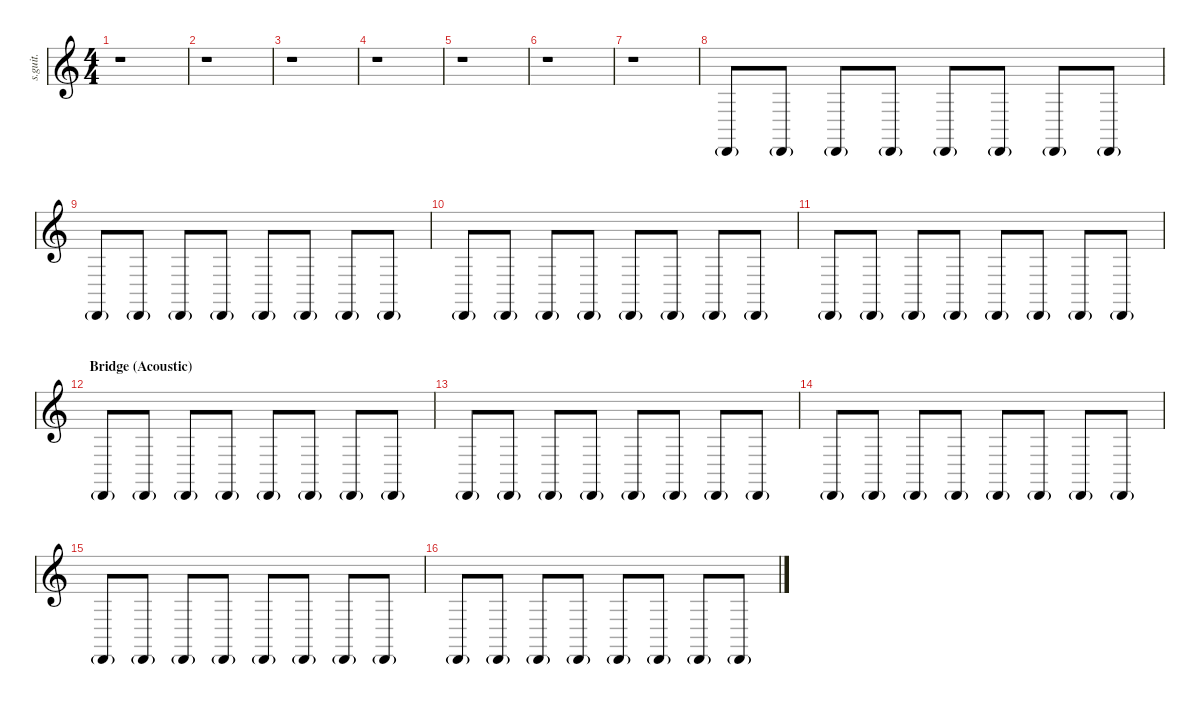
\defaultSystemsLayout 4
\hideDynamics
\bracketExtendMode nobrackets
\track ("Shaker" "s.guit.") {instrument percussion}
\staff {score}
\articulation defaults
\ts (4 4)
\tempo (124 hide)
\clef g2
\ks c
r.1{dy p} |
r.1 |
r.1 |
r.1 |
r.1 |
r.1 |
r.1 |
"Cabasa (hit)"{g}.8{lyrics (0 "") lyrics (1 "") lyrics (2 "") lyrics (3 "") lyrics (4 "")} "Cabasa (hit)"{g}.8{lyrics (0 "") lyrics (1 "") lyrics (2 "") lyrics (3 "") lyrics (4 "") dy pp} "Cabasa (hit)"{g}.8{lyrics (0 "") lyrics (1 "") lyrics (2 "") lyrics (3 "") lyrics (4 "") dy p} "Cabasa (hit)"{g}.8{lyrics (0 "") lyrics (1 "") lyrics (2 "") lyrics (3 "") lyrics (4 "") dy pp} "Cabasa (hit)"{g}.8{lyrics (0 "") lyrics (1 "") lyrics (2 "") lyrics (3 "") lyrics (4 "") dy p} "Cabasa (hit)"{g}.8{lyrics (0 "") lyrics (1 "") lyrics (2 "") lyrics (3 "") lyrics (4 "") dy pp} "Cabasa (hit)"{g}.8{lyrics (0 "") lyrics (1 "") lyrics (2 "") lyrics (3 "") lyrics (4 "") dy p} "Cabasa (hit)"{g}.8{lyrics (0 "") lyrics (1 "") lyrics (2 "") lyrics (3 "") lyrics (4 "") dy pp} |
"Cabasa (hit)"{g}.8{lyrics (0 "") lyrics (1 "") lyrics (2 "") lyrics (3 "") lyrics (4 "") dy p} "Cabasa (hit)"{g}.8{lyrics (0 "") lyrics (1 "") lyrics (2 "") lyrics (3 "") lyrics (4 "") dy pp} "Cabasa (hit)"{g}.8{lyrics (0 "") lyrics (1 "") lyrics (2 "") lyrics (3 "") lyrics (4 "") dy p} "Cabasa (hit)"{g}.8{lyrics (0 "") lyrics (1 "") lyrics (2 "") lyrics (3 "") lyrics (4 "") dy pp} "Cabasa (hit)"{g}.8{lyrics (0 "") lyrics (1 "") lyrics (2 "") lyrics (3 "") lyrics (4 "") dy p} "Cabasa (hit)"{g}.8{lyrics (0 "") lyrics (1 "") lyrics (2 "") lyrics (3 "") lyrics (4 "") dy pp} "Cabasa (hit)"{g}.8{lyrics (0 "") lyrics (1 "") lyrics (2 "") lyrics (3 "") lyrics (4 "") dy p} "Cabasa (hit)"{g}.8{lyrics (0 "") lyrics (1 "") lyrics (2 "") lyrics (3 "") lyrics (4 "") dy pp} |
"Cabasa (hit)"{g}.8{lyrics (0 "") lyrics (1 "") lyrics (2 "") lyrics (3 "") lyrics (4 "") dy p} "Cabasa (hit)"{g}.8{lyrics (0 "") lyrics (1 "") lyrics (2 "") lyrics (3 "") lyrics (4 "") dy pp} "Cabasa (hit)"{g}.8{lyrics (0 "") lyrics (1 "") lyrics (2 "") lyrics (3 "") lyrics (4 "") dy p} "Cabasa (hit)"{g}.8{lyrics (0 "") lyrics (1 "") lyrics (2 "") lyrics (3 "") lyrics (4 "") dy pp} "Cabasa (hit)"{g}.8{lyrics (0 "") lyrics (1 "") lyrics (2 "") lyrics (3 "") lyrics (4 "") dy p} "Cabasa (hit)"{g}.8{lyrics (0 "") lyrics (1 "") lyrics (2 "") lyrics (3 "") lyrics (4 "") dy pp} "Cabasa (hit)"{g}.8{lyrics (0 "") lyrics (1 "") lyrics (2 "") lyrics (3 "") lyrics (4 "") dy p} "Cabasa (hit)"{g}.8{lyrics (0 "") lyrics (1 "") lyrics (2 "") lyrics (3 "") lyrics (4 "") dy pp} |
"Cabasa (hit)"{g}.8{lyrics (0 "") lyrics (1 "") lyrics (2 "") lyrics (3 "") lyrics (4 "") dy p} "Cabasa (hit)"{g}.8{lyrics (0 "") lyrics (1 "") lyrics (2 "") lyrics (3 "") lyrics (4 "") dy pp} "Cabasa (hit)"{g}.8{lyrics (0 "") lyrics (1 "") lyrics (2 "") lyrics (3 "") lyrics (4 "") dy p} "Cabasa (hit)"{g}.8{lyrics (0 "") lyrics (1 "") lyrics (2 "") lyrics (3 "") lyrics (4 "") dy pp} "Cabasa (hit)"{g}.8{lyrics (0 "") lyrics (1 "") lyrics (2 "") lyrics (3 "") lyrics (4 "") dy p} "Cabasa (hit)"{g}.8{lyrics (0 "") lyrics (1 "") lyrics (2 "") lyrics (3 "") lyrics (4 "") dy pp} "Cabasa (hit)"{g}.8{lyrics (0 "") lyrics (1 "") lyrics (2 "") lyrics (3 "") lyrics (4 "") dy p} "Cabasa (hit)"{g}.8{lyrics (0 "") lyrics (1 "") lyrics (2 "") lyrics (3 "") lyrics (4 "") dy pp} |
\section ("" "Bridge (Acoustic)")
"Cabasa (hit)"{g}.8{lyrics (0 "") lyrics (1 "") lyrics (2 "") lyrics (3 "") lyrics (4 "") dy p} "Cabasa (hit)"{g}.8{lyrics (0 "") lyrics (1 "") lyrics (2 "") lyrics (3 "") lyrics (4 "") dy pp} "Cabasa (hit)"{g}.8{lyrics (0 "") lyrics (1 "") lyrics (2 "") lyrics (3 "") lyrics (4 "") dy p} "Cabasa (hit)"{g}.8{lyrics (0 "") lyrics (1 "") lyrics (2 "") lyrics (3 "") lyrics (4 "") dy pp} "Cabasa (hit)"{g}.8{lyrics (0 "") lyrics (1 "") lyrics (2 "") lyrics (3 "") lyrics (4 "") dy p} "Cabasa (hit)"{g}.8{lyrics (0 "") lyrics (1 "") lyrics (2 "") lyrics (3 "") lyrics (4 "") dy pp} "Cabasa (hit)"{g}.8{lyrics (0 "") lyrics (1 "") lyrics (2 "") lyrics (3 "") lyrics (4 "") dy p} "Cabasa (hit)"{g}.8{lyrics (0 "") lyrics (1 "") lyrics (2 "") lyrics (3 "") lyrics (4 "") dy pp} |
"Cabasa (hit)"{g}.8{lyrics (0 "") lyrics (1 "") lyrics (2 "") lyrics (3 "") lyrics (4 "") dy p} "Cabasa (hit)"{g}.8{lyrics (0 "") lyrics (1 "") lyrics (2 "") lyrics (3 "") lyrics (4 "") dy pp} "Cabasa (hit)"{g}.8{lyrics (0 "") lyrics (1 "") lyrics (2 "") lyrics (3 "") lyrics (4 "") dy p} "Cabasa (hit)"{g}.8{lyrics (0 "") lyrics (1 "") lyrics (2 "") lyrics (3 "") lyrics (4 "") dy pp} "Cabasa (hit)"{g}.8{lyrics (0 "") lyrics (1 "") lyrics (2 "") lyrics (3 "") lyrics (4 "") dy p} "Cabasa (hit)"{g}.8{lyrics (0 "") lyrics (1 "") lyrics (2 "") lyrics (3 "") lyrics (4 "") dy pp} "Cabasa (hit)"{g}.8{lyrics (0 "") lyrics (1 "") lyrics (2 "") lyrics (3 "") lyrics (4 "") dy p} "Cabasa (hit)"{g}.8{lyrics (0 "") lyrics (1 "") lyrics (2 "") lyrics (3 "") lyrics (4 "") dy pp} |
"Cabasa (hit)"{g}.8{lyrics (0 "") lyrics (1 "") lyrics (2 "") lyrics (3 "") lyrics (4 "") dy p} "Cabasa (hit)"{g}.8{lyrics (0 "") lyrics (1 "") lyrics (2 "") lyrics (3 "") lyrics (4 "") dy pp} "Cabasa (hit)"{g}.8{lyrics (0 "") lyrics (1 "") lyrics (2 "") lyrics (3 "") lyrics (4 "") dy p} "Cabasa (hit)"{g}.8{lyrics (0 "") lyrics (1 "") lyrics (2 "") lyrics (3 "") lyrics (4 "") dy pp} "Cabasa (hit)"{g}.8{lyrics (0 "") lyrics (1 "") lyrics (2 "") lyrics (3 "") lyrics (4 "") dy p} "Cabasa (hit)"{g}.8{lyrics (0 "") lyrics (1 "") lyrics (2 "") lyrics (3 "") lyrics (4 "") dy pp} "Cabasa (hit)"{g}.8{lyrics (0 "") lyrics (1 "") lyrics (2 "") lyrics (3 "") lyrics (4 "") dy p} "Cabasa (hit)"{g}.8{lyrics (0 "") lyrics (1 "") lyrics (2 "") lyrics (3 "") lyrics (4 "") dy pp} |
"Cabasa (hit)"{g}.8{lyrics (0 "") lyrics (1 "") lyrics (2 "") lyrics (3 "") lyrics (4 "") dy p} "Cabasa (hit)"{g}.8{lyrics (0 "") lyrics (1 "") lyrics (2 "") lyrics (3 "") lyrics (4 "") dy pp} "Cabasa (hit)"{g}.8{lyrics (0 "") lyrics (1 "") lyrics (2 "") lyrics (3 "") lyrics (4 "") dy p} "Cabasa (hit)"{g}.8{lyrics (0 "") lyrics (1 "") lyrics (2 "") lyrics (3 "") lyrics (4 "") dy pp} "Cabasa (hit)"{g}.8{lyrics (0 "") lyrics (1 "") lyrics (2 "") lyrics (3 "") lyrics (4 "") dy p} "Cabasa (hit)"{g}.8{lyrics (0 "") lyrics (1 "") lyrics (2 "") lyrics (3 "") lyrics (4 "") dy pp} "Cabasa (hit)"{g}.8{lyrics (0 "") lyrics (1 "") lyrics (2 "") lyrics (3 "") lyrics (4 "") dy p} "Cabasa (hit)"{g}.8{lyrics (0 "") lyrics (1 "") lyrics (2 "") lyrics (3 "") lyrics (4 "") dy pp} |
"Cabasa (hit)"{g}.8{lyrics (0 "") lyrics (1 "") lyrics (2 "") lyrics (3 "") lyrics (4 "") dy p} "Cabasa (hit)"{g}.8{lyrics (0 "") lyrics (1 "") lyrics (2 "") lyrics (3 "") lyrics (4 "") dy pp} "Cabasa (hit)"{g}.8{lyrics (0 "") lyrics (1 "") lyrics (2 "") lyrics (3 "") lyrics (4 "") dy p} "Cabasa (hit)"{g}.8{lyrics (0 "") lyrics (1 "") lyrics (2 "") lyrics (3 "") lyrics (4 "") dy pp} "Cabasa (hit)"{g}.8{lyrics (0 "") lyrics (1 "") lyrics (2 "") lyrics (3 "") lyrics (4 "") dy p} "Cabasa (hit)"{g}.8{lyrics (0 "") lyrics (1 "") lyrics (2 "") lyrics (3 "") lyrics (4 "") dy pp} "Cabasa (hit)"{g}.8{lyrics (0 "") lyrics (1 "") lyrics (2 "") lyrics (3 "") lyrics (4 "") dy p} "Cabasa (hit)"{g}.8{lyrics (0 "") lyrics (1 "") lyrics (2 "") lyrics (3 "") lyrics (4 "") dy pp}
